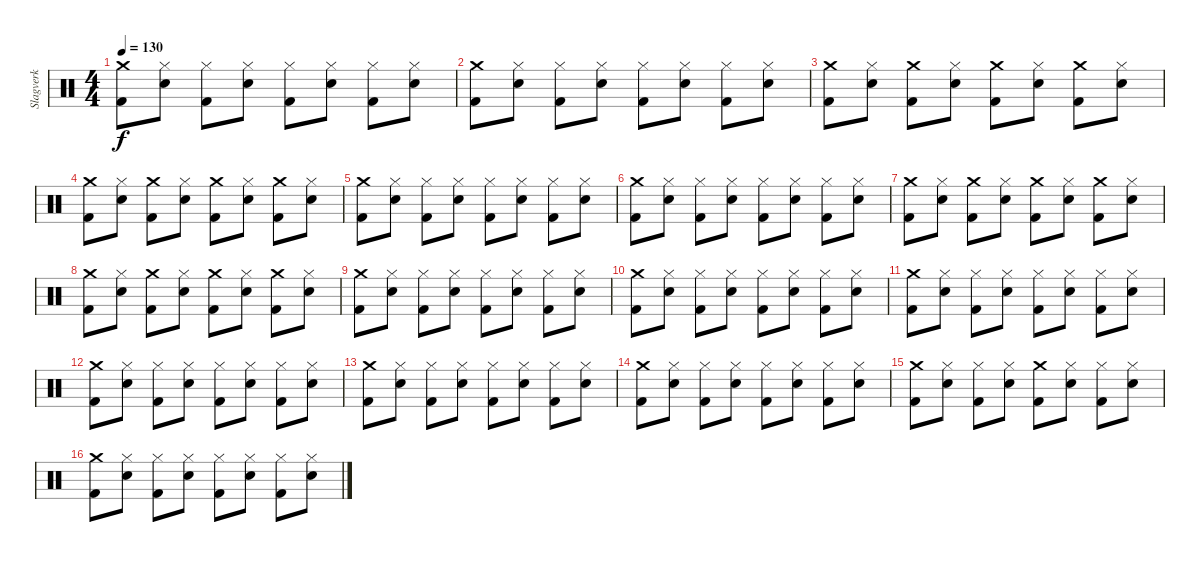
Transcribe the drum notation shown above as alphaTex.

\track ("Slagverk" "Slagverk") {instrument percussion}
\staff {score}
\articulation defaults
\ts (4 4)
\tempo 130
\clef neutral
\ks c
("Crash medium (hit)" "Kick (hit) 2").8{dy f} ("Snare (hit) 2" "Hi-Hat (closed)").8 ("Hi-Hat (closed)" "Kick (hit) 2").8 ("Snare (hit) 2" "Hi-Hat (closed)").8 ("Hi-Hat (closed)" "Kick (hit) 2").8 ("Snare (hit) 2" "Hi-Hat (closed)").8 ("Hi-Hat (closed)" "Kick (hit) 2").8 ("Snare (hit) 2" "Hi-Hat (closed)").8 |
("Crash medium (hit)" "Kick (hit) 2").8 ("Snare (hit) 2" "Hi-Hat (closed)").8 ("Hi-Hat (closed)" "Kick (hit) 2").8 ("Snare (hit) 2" "Hi-Hat (closed)").8 ("Hi-Hat (closed)" "Kick (hit) 2").8 ("Snare (hit) 2" "Hi-Hat (closed)").8 ("Hi-Hat (closed)" "Kick (hit) 2").8 ("Snare (hit) 2" "Hi-Hat (closed)").8 |
("Crash medium (hit)" "Kick (hit) 2").8 ("Snare (hit) 2" "Hi-Hat (closed)").8 ("Crash medium (hit)" "Kick (hit) 2").8 ("Snare (hit) 2" "Hi-Hat (closed)").8 ("Crash medium (hit)" "Kick (hit) 2").8 ("Snare (hit) 2" "Hi-Hat (closed)").8 ("Crash medium (hit)" "Kick (hit) 2").8 ("Snare (hit) 2" "Hi-Hat (closed)").8 |
("Crash medium (hit)" "Kick (hit) 2").8 ("Snare (hit) 2" "Hi-Hat (closed)").8 ("Crash medium (hit)" "Kick (hit) 2").8 ("Snare (hit) 2" "Hi-Hat (closed)").8 ("Crash medium (hit)" "Kick (hit) 2").8 ("Snare (hit) 2" "Hi-Hat (closed)").8 ("Crash medium (hit)" "Kick (hit) 2").8 ("Snare (hit) 2" "Hi-Hat (closed)").8 |
("Crash medium (hit)" "Kick (hit) 2").8 ("Snare (hit) 2" "Hi-Hat (closed)").8 ("Hi-Hat (closed)" "Kick (hit) 2").8 ("Snare (hit) 2" "Hi-Hat (closed)").8 ("Hi-Hat (closed)" "Kick (hit) 2").8 ("Snare (hit) 2" "Hi-Hat (closed)").8 ("Hi-Hat (closed)" "Kick (hit) 2").8 ("Snare (hit) 2" "Hi-Hat (closed)").8 |
("Crash medium (hit)" "Kick (hit) 2").8 ("Snare (hit) 2" "Hi-Hat (closed)").8 ("Hi-Hat (closed)" "Kick (hit) 2").8 ("Snare (hit) 2" "Hi-Hat (closed)").8 ("Hi-Hat (closed)" "Kick (hit) 2").8 ("Snare (hit) 2" "Hi-Hat (closed)").8 ("Hi-Hat (closed)" "Kick (hit) 2").8 ("Snare (hit) 2" "Hi-Hat (closed)").8 |
("Crash medium (hit)" "Kick (hit) 2").8 ("Snare (hit) 2" "Hi-Hat (closed)").8 ("Crash medium (hit)" "Kick (hit) 2").8 ("Snare (hit) 2" "Hi-Hat (closed)").8 ("Crash medium (hit)" "Kick (hit) 2").8 ("Snare (hit) 2" "Hi-Hat (closed)").8 ("Crash medium (hit)" "Kick (hit) 2").8 ("Snare (hit) 2" "Hi-Hat (closed)").8 |
("Crash medium (hit)" "Kick (hit) 2").8 ("Snare (hit) 2" "Hi-Hat (closed)").8 ("Crash medium (hit)" "Kick (hit) 2").8 ("Snare (hit) 2" "Hi-Hat (closed)").8 ("Crash medium (hit)" "Kick (hit) 2").8 ("Snare (hit) 2" "Hi-Hat (closed)").8 ("Crash medium (hit)" "Kick (hit) 2").8 ("Snare (hit) 2" "Hi-Hat (closed)").8 |
("Crash medium (hit)" "Kick (hit) 2").8 ("Snare (hit) 2" "Hi-Hat (closed)").8 ("Hi-Hat (closed)" "Kick (hit) 2").8 ("Snare (hit) 2" "Hi-Hat (closed)").8 ("Hi-Hat (closed)" "Kick (hit) 2").8 ("Snare (hit) 2" "Hi-Hat (closed)").8 ("Hi-Hat (closed)" "Kick (hit) 2").8 ("Snare (hit) 2" "Hi-Hat (closed)").8 |
("Crash medium (hit)" "Kick (hit) 2").8 ("Snare (hit) 2" "Hi-Hat (closed)").8 ("Hi-Hat (closed)" "Kick (hit) 2").8 ("Snare (hit) 2" "Hi-Hat (closed)").8 ("Hi-Hat (closed)" "Kick (hit) 2").8 ("Snare (hit) 2" "Hi-Hat (closed)").8 ("Hi-Hat (closed)" "Kick (hit) 2").8 ("Snare (hit) 2" "Hi-Hat (closed)").8 |
("Crash medium (hit)" "Kick (hit) 2").8 ("Snare (hit) 2" "Hi-Hat (closed)").8 ("Hi-Hat (closed)" "Kick (hit) 2").8 ("Snare (hit) 2" "Hi-Hat (closed)").8 ("Hi-Hat (closed)" "Kick (hit) 2").8 ("Snare (hit) 2" "Hi-Hat (closed)").8 ("Hi-Hat (closed)" "Kick (hit) 2").8 ("Snare (hit) 2" "Hi-Hat (closed)").8 |
("Crash medium (hit)" "Kick (hit) 2").8 ("Snare (hit) 2" "Hi-Hat (closed)").8 ("Hi-Hat (closed)" "Kick (hit) 2").8 ("Snare (hit) 2" "Hi-Hat (closed)").8 ("Hi-Hat (closed)" "Kick (hit) 2").8 ("Snare (hit) 2" "Hi-Hat (closed)").8 ("Hi-Hat (closed)" "Kick (hit) 2").8 ("Snare (hit) 2" "Hi-Hat (closed)").8 |
("Crash medium (hit)" "Kick (hit) 2").8 ("Snare (hit) 2" "Hi-Hat (closed)").8 ("Hi-Hat (closed)" "Kick (hit) 2").8 ("Snare (hit) 2" "Hi-Hat (closed)").8 ("Hi-Hat (closed)" "Kick (hit) 2").8 ("Snare (hit) 2" "Hi-Hat (closed)").8 ("Hi-Hat (closed)" "Kick (hit) 2").8 ("Snare (hit) 2" "Hi-Hat (closed)").8 |
("Crash medium (hit)" "Kick (hit) 2").8 ("Snare (hit) 2" "Hi-Hat (closed)").8 ("Hi-Hat (closed)" "Kick (hit) 2").8 ("Snare (hit) 2" "Hi-Hat (closed)").8 ("Hi-Hat (closed)" "Kick (hit) 2").8 ("Snare (hit) 2" "Hi-Hat (closed)").8 ("Hi-Hat (closed)" "Kick (hit) 2").8 ("Snare (hit) 2" "Hi-Hat (closed)").8 |
("Crash medium (hit)" "Kick (hit) 2").8 ("Snare (hit) 2" "Hi-Hat (closed)").8 ("Hi-Hat (closed)" "Kick (hit) 2").8 ("Snare (hit) 2" "Hi-Hat (closed)").8 ("Crash medium (hit)" "Kick (hit) 2").8 ("Snare (hit) 2" "Hi-Hat (closed)").8 ("Hi-Hat (closed)" "Kick (hit) 2").8 ("Snare (hit) 2" "Hi-Hat (closed)").8 |
("Crash medium (hit)" "Kick (hit) 2").8 ("Snare (hit) 2" "Hi-Hat (closed)").8 ("Hi-Hat (closed)" "Kick (hit) 2").8 ("Snare (hit) 2" "Hi-Hat (closed)").8 ("Hi-Hat (closed)" "Kick (hit) 2").8 ("Snare (hit) 2" "Hi-Hat (closed)").8 ("Hi-Hat (closed)" "Kick (hit) 2").8 ("Snare (hit) 2" "Hi-Hat (closed)").8
